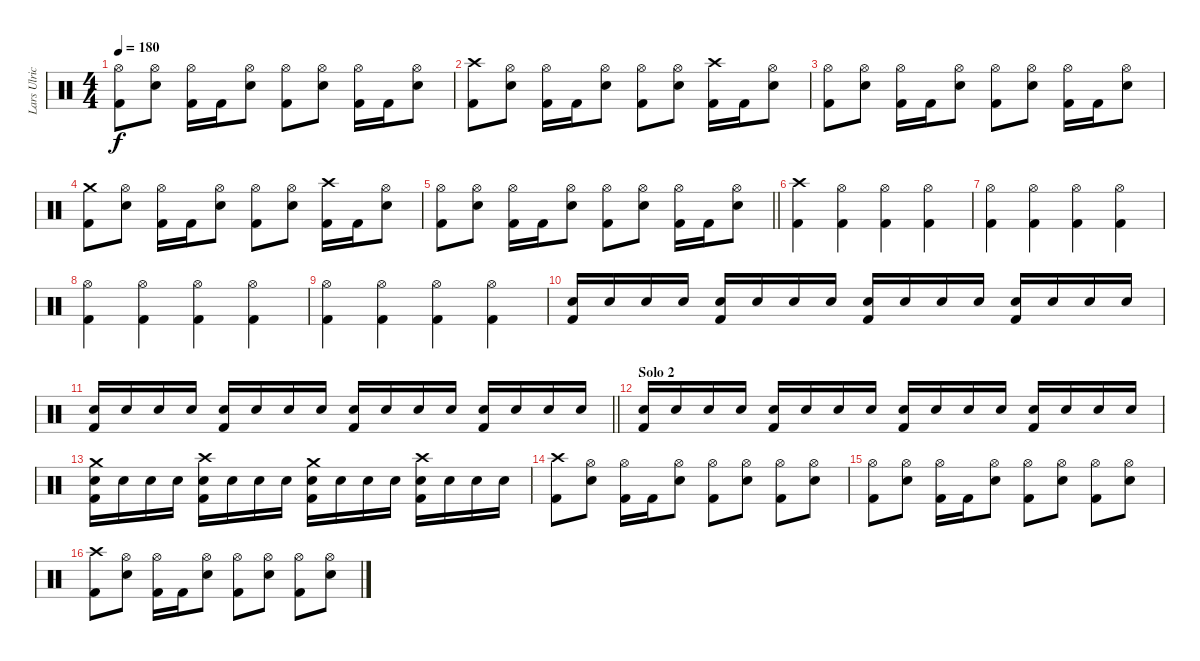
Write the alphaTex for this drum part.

\track ("Lars Ulrich" "Lars Ulric") {instrument percussion}
\staff {score}
\articulation defaults
\ts (4 4)
\tempo 180
\clef neutral
\ks c
("Hi-Hat (open)" "Kick (hit) 2").8{dy f} ("Hi-Hat (open)" "Electric Snare (hit)").8 ("Hi-Hat (open)" "Kick (hit) 2").16 "Kick (hit) 2".16 ("Hi-Hat (open)" "Electric Snare (hit)").8 ("Hi-Hat (open)" "Kick (hit) 2").8 ("Hi-Hat (open)" "Electric Snare (hit)").8 ("Hi-Hat (open)" "Kick (hit) 2").16 "Kick (hit) 2".16 ("Hi-Hat (open)" "Electric Snare (hit)").8 |
("Crash high (hit)" "Kick (hit) 2").8 ("Hi-Hat (open)" "Electric Snare (hit)").8 ("Hi-Hat (open)" "Kick (hit) 2").16 "Kick (hit) 2".16 ("Hi-Hat (open)" "Electric Snare (hit)").8 ("Hi-Hat (open)" "Kick (hit) 2").8 ("Hi-Hat (open)" "Electric Snare (hit)").8 ("Crash high (hit)" "Kick (hit) 2").16 "Kick (hit) 2".16 ("Hi-Hat (open)" "Electric Snare (hit)").8 |
("Hi-Hat (open)" "Kick (hit) 2").8 ("Hi-Hat (open)" "Electric Snare (hit)").8 ("Hi-Hat (open)" "Kick (hit) 2").16 "Kick (hit) 2".16 ("Hi-Hat (open)" "Electric Snare (hit)").8 ("Hi-Hat (open)" "Kick (hit) 2").8 ("Hi-Hat (open)" "Electric Snare (hit)").8 ("Hi-Hat (open)" "Kick (hit) 2").16 "Kick (hit) 2".16 ("Hi-Hat (open)" "Electric Snare (hit)").8 |
("Crash medium (hit)" "Kick (hit) 2").8 ("Hi-Hat (open)" "Electric Snare (hit)").8 ("Hi-Hat (open)" "Kick (hit) 2").16 "Kick (hit) 2".16 ("Hi-Hat (open)" "Electric Snare (hit)").8 ("Hi-Hat (open)" "Kick (hit) 2").8 ("Hi-Hat (open)" "Electric Snare (hit)").8 ("Crash high (hit)" "Kick (hit) 2").16 "Kick (hit) 2".16 ("Hi-Hat (open)" "Electric Snare (hit)").8 |
\barLineRight lightlight
("Hi-Hat (open)" "Kick (hit) 2").8 ("Hi-Hat (open)" "Electric Snare (hit)").8 ("Hi-Hat (open)" "Kick (hit) 2").16 "Kick (hit) 2".16 ("Hi-Hat (open)" "Electric Snare (hit)").8 ("Hi-Hat (open)" "Kick (hit) 2").8 ("Hi-Hat (open)" "Electric Snare (hit)").8 ("Hi-Hat (open)" "Kick (hit) 2").16 "Kick (hit) 2".16 ("Hi-Hat (open)" "Electric Snare (hit)").8 |
\section ("" "")
("Crash high (hit)" "Kick (hit) 2").4 ("Hi-Hat (open)" "Kick (hit) 2").4 ("Hi-Hat (open)" "Kick (hit) 2").4 ("Hi-Hat (open)" "Kick (hit) 2").4 |
("Hi-Hat (open)" "Kick (hit) 2").4 ("Hi-Hat (open)" "Kick (hit) 2").4 ("Hi-Hat (open)" "Kick (hit) 2").4 ("Hi-Hat (open)" "Kick (hit) 2").4 |
("Hi-Hat (open)" "Kick (hit) 2").4 ("Hi-Hat (open)" "Kick (hit) 2").4 ("Hi-Hat (open)" "Kick (hit) 2").4 ("Hi-Hat (open)" "Kick (hit) 2").4 |
("Hi-Hat (open)" "Kick (hit) 2").4 ("Hi-Hat (open)" "Kick (hit) 2").4 ("Hi-Hat (open)" "Kick (hit) 2").4 ("Hi-Hat (open)" "Kick (hit) 2").4 |
("Electric Snare (hit)" "Kick (hit) 2").16 "Electric Snare (hit)".16 "Electric Snare (hit)".16 "Electric Snare (hit)".16 ("Electric Snare (hit)" "Kick (hit) 2").16 "Electric Snare (hit)".16 "Electric Snare (hit)".16 "Electric Snare (hit)".16 ("Electric Snare (hit)" "Kick (hit) 2").16 "Electric Snare (hit)".16 "Electric Snare (hit)".16 "Electric Snare (hit)".16 ("Electric Snare (hit)" "Kick (hit) 2").16 "Electric Snare (hit)".16 "Electric Snare (hit)".16 "Electric Snare (hit)".16 |
\barLineRight lightlight
("Electric Snare (hit)" "Kick (hit) 2").16 "Electric Snare (hit)".16 "Electric Snare (hit)".16 "Electric Snare (hit)".16 ("Electric Snare (hit)" "Kick (hit) 2").16 "Electric Snare (hit)".16 "Electric Snare (hit)".16 "Electric Snare (hit)".16 ("Electric Snare (hit)" "Kick (hit) 2").16 "Electric Snare (hit)".16 "Electric Snare (hit)".16 "Electric Snare (hit)".16 ("Electric Snare (hit)" "Kick (hit) 2").16 "Electric Snare (hit)".16 "Electric Snare (hit)".16 "Electric Snare (hit)".16 |
\section ("" "Solo 2")
("Electric Snare (hit)" "Kick (hit) 2").16 "Electric Snare (hit)".16 "Electric Snare (hit)".16 "Electric Snare (hit)".16 ("Electric Snare (hit)" "Kick (hit) 2").16 "Electric Snare (hit)".16 "Electric Snare (hit)".16 "Electric Snare (hit)".16 ("Electric Snare (hit)" "Kick (hit) 2").16 "Electric Snare (hit)".16 "Electric Snare (hit)".16 "Electric Snare (hit)".16 ("Electric Snare (hit)" "Kick (hit) 2").16 "Electric Snare (hit)".16 "Electric Snare (hit)".16 "Electric Snare (hit)".16 |
("Crash medium (hit)" "Electric Snare (hit)" "Kick (hit) 2").16 "Electric Snare (hit)".16 "Electric Snare (hit)".16 "Electric Snare (hit)".16 ("Crash high (hit)" "Electric Snare (hit)" "Kick (hit) 2").16 "Electric Snare (hit)".16 "Electric Snare (hit)".16 "Electric Snare (hit)".16 ("Crash medium (hit)" "Electric Snare (hit)" "Kick (hit) 2").16 "Electric Snare (hit)".16 "Electric Snare (hit)".16 "Electric Snare (hit)".16 ("Crash high (hit)" "Electric Snare (hit)" "Kick (hit) 2").16 "Electric Snare (hit)".16 "Electric Snare (hit)".16 "Electric Snare (hit)".16 |
("Crash high (hit)" "Kick (hit) 2").8 ("Hi-Hat (open)" "Electric Snare (hit)").8 ("Hi-Hat (open)" "Kick (hit) 2").16 "Kick (hit) 2".16 ("Hi-Hat (open)" "Electric Snare (hit)").8 ("Hi-Hat (open)" "Kick (hit) 2").8 ("Hi-Hat (open)" "Electric Snare (hit)").8 ("Hi-Hat (open)" "Kick (hit) 2").8 ("Hi-Hat (open)" "Electric Snare (hit)").8 |
("Hi-Hat (open)" "Kick (hit) 2").8 ("Hi-Hat (open)" "Electric Snare (hit)").8 ("Hi-Hat (open)" "Kick (hit) 2").16 "Kick (hit) 2".16 ("Hi-Hat (open)" "Electric Snare (hit)").8 ("Hi-Hat (open)" "Kick (hit) 2").8 ("Hi-Hat (open)" "Electric Snare (hit)").8 ("Hi-Hat (open)" "Kick (hit) 2").8 ("Hi-Hat (open)" "Electric Snare (hit)").8 |
("Crash high (hit)" "Kick (hit) 2").8 ("Hi-Hat (open)" "Electric Snare (hit)").8 ("Hi-Hat (open)" "Kick (hit) 2").16 "Kick (hit) 2".16 ("Hi-Hat (open)" "Electric Snare (hit)").8 ("Hi-Hat (open)" "Kick (hit) 2").8 ("Hi-Hat (open)" "Electric Snare (hit)").8 ("Hi-Hat (open)" "Kick (hit) 2").8 ("Hi-Hat (open)" "Electric Snare (hit)").8
